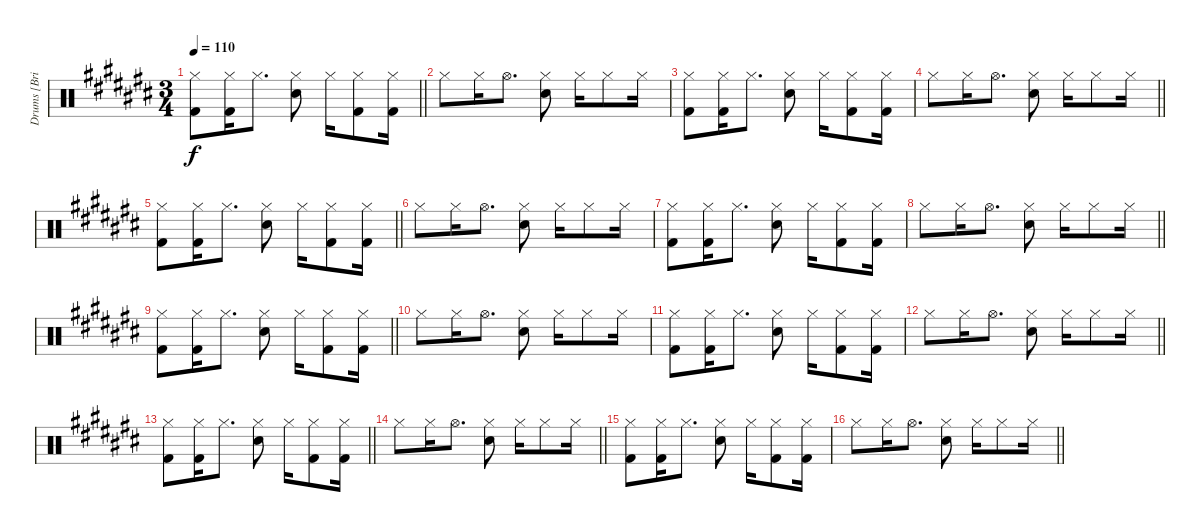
\track ("Drums [Brian \"Brain\" Mantia]" "Drums [Bri") {instrument percussion}
\staff {score}
\articulation defaults
\ts (3 4)
\tempo 110
\clef neutral
\barLineRight lightlight
\ks c#
("Hi-Hat (closed)" "Kick (hit) 2").8{dy f} ("Hi-Hat (closed)" "Kick (hit) 2").16 "Hi-Hat (closed)".8{d} ("Hi-Hat (closed)" "Electric Snare (hit)").8 "Hi-Hat (closed)".16 ("Hi-Hat (closed)" "Kick (hit) 2").8 ("Hi-Hat (closed)" "Kick (hit) 2").16 |
"Hi-Hat (closed)".8 "Hi-Hat (closed)".16 "Hi-Hat (open)".8{d} ("Hi-Hat (closed)" "Electric Snare (hit)").8 "Hi-Hat (closed)".16 "Hi-Hat (closed)".8 "Hi-Hat (closed)".16 |
("Hi-Hat (closed)" "Kick (hit) 2").8 ("Hi-Hat (closed)" "Kick (hit) 2").16 "Hi-Hat (closed)".8{d} ("Hi-Hat (closed)" "Electric Snare (hit)").8 "Hi-Hat (closed)".16 ("Hi-Hat (closed)" "Kick (hit) 2").8 ("Hi-Hat (closed)" "Kick (hit) 2").16 |
\barLineRight lightlight "Hi-Hat (closed)".8 "Hi-Hat (closed)".16 "Hi-Hat (open)".8{d}
("Hi-Hat (closed)" "Electric Snare (hit)").8 "Hi-Hat (closed)".16 "Hi-Hat (closed)".8 "Hi-Hat (closed)".16 |
\barLineRight lightlight
("Hi-Hat (closed)" "Kick (hit) 2").8 ("Hi-Hat (closed)" "Kick (hit) 2").16 "Hi-Hat (closed)".8{d} ("Hi-Hat (closed)" "Electric Snare (hit)").8 "Hi-Hat (closed)".16 ("Hi-Hat (closed)" "Kick (hit) 2").8 ("Hi-Hat (closed)" "Kick (hit) 2").16 |
"Hi-Hat (closed)".8 "Hi-Hat (closed)".16 "Hi-Hat (open)".8{d} ("Hi-Hat (closed)" "Electric Snare (hit)").8 "Hi-Hat (closed)".16 "Hi-Hat (closed)".8 "Hi-Hat (closed)".16 |
("Hi-Hat (closed)" "Kick (hit) 2").8 ("Hi-Hat (closed)" "Kick (hit) 2").16 "Hi-Hat (closed)".8{d} ("Hi-Hat (closed)" "Electric Snare (hit)").8 "Hi-Hat (closed)".16 ("Hi-Hat (closed)" "Kick (hit) 2").8 ("Hi-Hat (closed)" "Kick (hit) 2").16 |
\barLineRight lightlight "Hi-Hat (closed)".8 "Hi-Hat (closed)".16 "Hi-Hat (open)".8{d}
("Hi-Hat (closed)" "Electric Snare (hit)").8 "Hi-Hat (closed)".16 "Hi-Hat (closed)".8 "Hi-Hat (closed)".16 |
\barLineRight lightlight
("Hi-Hat (closed)" "Kick (hit) 2").8 ("Hi-Hat (closed)" "Kick (hit) 2").16 "Hi-Hat (closed)".8{d} ("Hi-Hat (closed)" "Electric Snare (hit)").8 "Hi-Hat (closed)".16 ("Hi-Hat (closed)" "Kick (hit) 2").8 ("Hi-Hat (closed)" "Kick (hit) 2").16 |
"Hi-Hat (closed)".8 "Hi-Hat (closed)".16 "Hi-Hat (open)".8{d} ("Hi-Hat (closed)" "Electric Snare (hit)").8 "Hi-Hat (closed)".16 "Hi-Hat (closed)".8 "Hi-Hat (closed)".16 |
("Hi-Hat (closed)" "Kick (hit) 2").8 ("Hi-Hat (closed)" "Kick (hit) 2").16 "Hi-Hat (closed)".8{d} ("Hi-Hat (closed)" "Electric Snare (hit)").8 "Hi-Hat (closed)".16 ("Hi-Hat (closed)" "Kick (hit) 2").8 ("Hi-Hat (closed)" "Kick (hit) 2").16 |
\barLineRight lightlight "Hi-Hat (closed)".8 "Hi-Hat (closed)".16 "Hi-Hat (open)".8{d}
("Hi-Hat (closed)" "Electric Snare (hit)").8 "Hi-Hat (closed)".16 "Hi-Hat (closed)".8 "Hi-Hat (closed)".16 |
\barLineRight lightlight
("Hi-Hat (closed)" "Kick (hit) 2").8 ("Hi-Hat (closed)" "Kick (hit) 2").16 "Hi-Hat (closed)".8{d} ("Hi-Hat (closed)" "Electric Snare (hit)").8 "Hi-Hat (closed)".16 ("Hi-Hat (closed)" "Kick (hit) 2").8 ("Hi-Hat (closed)" "Kick (hit) 2").16 |
\barLineRight lightlight "Hi-Hat (closed)".8 "Hi-Hat (closed)".16 "Hi-Hat (open)".8{d}
("Hi-Hat (closed)" "Electric Snare (hit)").8 "Hi-Hat (closed)".16 "Hi-Hat (closed)".8 "Hi-Hat (closed)".16 |
\section ("" "")
("Hi-Hat (closed)" "Kick (hit) 2").8 ("Hi-Hat (closed)" "Kick (hit) 2").16 "Hi-Hat (closed)".8{d} ("Hi-Hat (closed)" "Electric Snare (hit)").8 "Hi-Hat (closed)".16 ("Hi-Hat (closed)" "Kick (hit) 2").8 ("Hi-Hat (closed)" "Kick (hit) 2").16 |
\barLineRight lightlight "Hi-Hat (closed)".8 "Hi-Hat (closed)".16 "Hi-Hat (open)".8{d}
("Hi-Hat (closed)" "Electric Snare (hit)").8 "Hi-Hat (closed)".16 "Hi-Hat (closed)".8 "Hi-Hat (closed)".16
